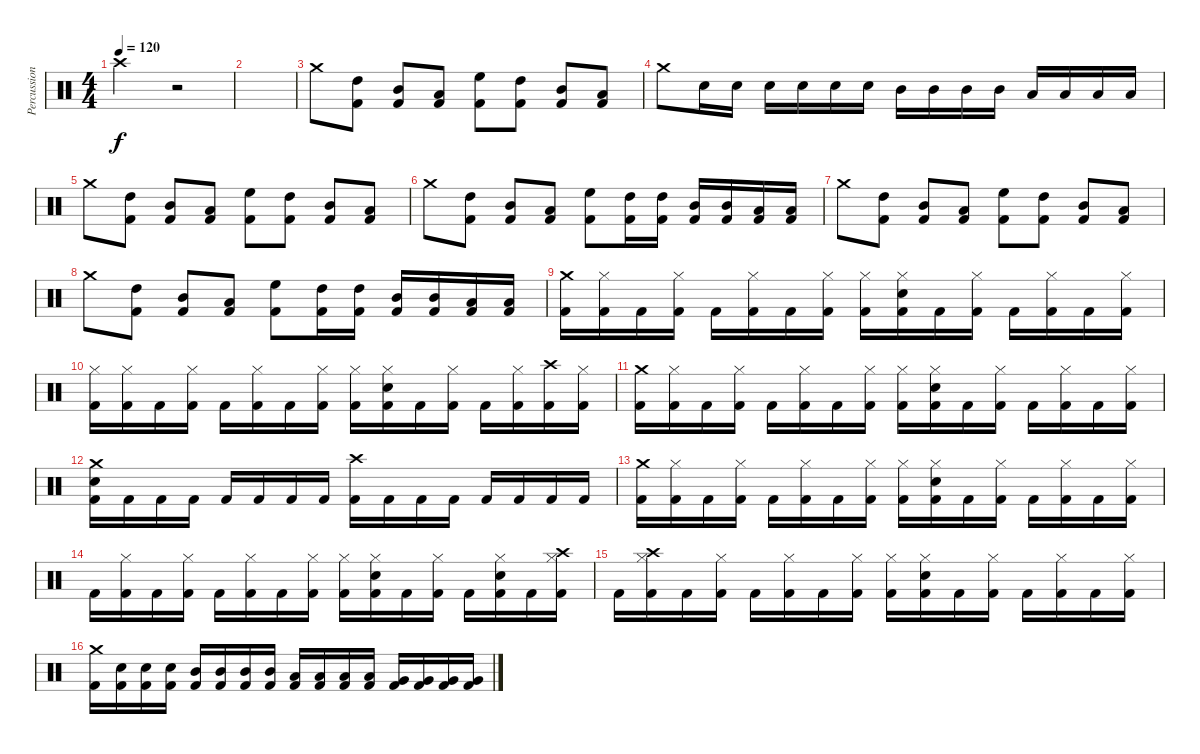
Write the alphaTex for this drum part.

\track ("Percussion" "Percussion") {instrument percussion}
\staff {score}
\articulation defaults
\ts (4 4)
\tempo 120
\clef neutral
\ks c "Crash high (hit)".2{dy f}
r.2 |
|
"Crash medium (hit)".8 ("High Tom (hit)" "Kick (hit) 2").8 ("Mid Tom (hit)" "Kick (hit) 2").8 ("Low Tom (hit)" "Kick (hit) 2").8 ("High Floor Tom (hit)" "Kick (hit) 2").8 ("High Tom (hit)" "Kick (hit) 2").8 ("Mid Tom (hit)" "Kick (hit) 2").8 ("Low Tom (hit)" "Kick (hit) 2").8 |
"Crash medium (hit)".8 "Snare (hit) 2".16 "Snare (hit) 2".16 "Snare (hit) 2".16 "Snare (hit) 2".16 "Snare (hit) 2".16 "Snare (hit) 2".16 "Mid Tom (hit)".16 "Mid Tom (hit)".16 "Mid Tom (hit)".16 "Mid Tom (hit)".16 "Low Tom (hit)".16 "Low Tom (hit)".16 "Low Tom (hit)".16 "Low Tom (hit)".16 |
"Crash medium (hit)".8 ("High Tom (hit)" "Kick (hit) 2").8 ("Mid Tom (hit)" "Kick (hit) 2").8 ("Low Tom (hit)" "Kick (hit) 2").8 ("High Floor Tom (hit)" "Kick (hit) 2").8 ("High Tom (hit)" "Kick (hit) 2").8 ("Mid Tom (hit)" "Kick (hit) 2").8 ("Low Tom (hit)" "Kick (hit) 2").8 |
"Crash medium (hit)".8 ("High Tom (hit)" "Kick (hit) 2").8 ("Mid Tom (hit)" "Kick (hit) 2").8 ("Low Tom (hit)" "Kick (hit) 2").8 ("High Floor Tom (hit)" "Kick (hit) 2").8 ("High Tom (hit)" "Kick (hit) 2").16 ("High Tom (hit)" "Kick (hit) 2").16 ("Mid Tom (hit)" "Kick (hit) 2").16 ("Mid Tom (hit)" "Kick (hit) 2").16 ("Low Tom (hit)" "Kick (hit) 2").16 ("Low Tom (hit)" "Kick (hit) 2").16 |
"Crash medium (hit)".8 ("High Tom (hit)" "Kick (hit) 2").8 ("Mid Tom (hit)" "Kick (hit) 2").8 ("Low Tom (hit)" "Kick (hit) 2").8 ("High Floor Tom (hit)" "Kick (hit) 2").8 ("High Tom (hit)" "Kick (hit) 2").8 ("Mid Tom (hit)" "Kick (hit) 2").8 ("Low Tom (hit)" "Kick (hit) 2").8 |
"Crash medium (hit)".8 ("High Tom (hit)" "Kick (hit) 2").8 ("Mid Tom (hit)" "Kick (hit) 2").8 ("Low Tom (hit)" "Kick (hit) 2").8 ("High Floor Tom (hit)" "Kick (hit) 2").8 ("High Tom (hit)" "Kick (hit) 2").16 ("High Tom (hit)" "Kick (hit) 2").16 ("Mid Tom (hit)" "Kick (hit) 2").16 ("Mid Tom (hit)" "Kick (hit) 2").16 ("Low Tom (hit)" "Kick (hit) 2").16 ("Low Tom (hit)" "Kick (hit) 2").16 |
("Crash medium (hit)" "Kick (hit) 2").16 ("Hi-Hat (closed)" "Kick (hit) 2").16 "Kick (hit) 2".16 ("Hi-Hat (closed)" "Kick (hit) 2").16 "Kick (hit) 2".16 ("Hi-Hat (closed)" "Kick (hit) 2").16 "Kick (hit) 2".16 ("Hi-Hat (closed)" "Kick (hit) 2").16 ("Hi-Hat (closed)" "Kick (hit) 2").16 ("Hi-Hat (closed)" "Snare (hit) 2" "Kick (hit) 2").16 "Kick (hit) 2".16 ("Hi-Hat (closed)" "Kick (hit) 2").16 "Kick (hit) 2".16 ("Hi-Hat (closed)" "Kick (hit) 2").16 "Kick (hit) 2".16 ("Hi-Hat (closed)" "Kick (hit) 2").16 |
("Hi-Hat (closed)" "Kick (hit) 2").16 ("Hi-Hat (closed)" "Kick (hit) 2").16 "Kick (hit) 2".16 ("Hi-Hat (closed)" "Kick (hit) 2").16 "Kick (hit) 2".16 ("Hi-Hat (closed)" "Kick (hit) 2").16 "Kick (hit) 2".16 ("Hi-Hat (closed)" "Kick (hit) 2").16 ("Hi-Hat (closed)" "Kick (hit) 2").16 ("Hi-Hat (closed)" "Snare (hit) 2" "Kick (hit) 2").16 "Kick (hit) 2".16 ("Hi-Hat (closed)" "Kick (hit) 2").16 "Kick (hit) 2".16 ("Hi-Hat (closed)" "Kick (hit) 2").16 ("Crash high (hit)" "Kick (hit) 2").16 ("Hi-Hat (closed)" "Kick (hit) 2").16 |
("Crash medium (hit)" "Kick (hit) 2").16 ("Hi-Hat (closed)" "Kick (hit) 2").16 "Kick (hit) 2".16 ("Hi-Hat (closed)" "Kick (hit) 2").16 "Kick (hit) 2".16 ("Hi-Hat (closed)" "Kick (hit) 2").16 "Kick (hit) 2".16 ("Hi-Hat (closed)" "Kick (hit) 2").16 ("Hi-Hat (closed)" "Kick (hit) 2").16 ("Hi-Hat (closed)" "Snare (hit) 2" "Kick (hit) 2").16 "Kick (hit) 2".16 ("Hi-Hat (closed)" "Kick (hit) 2").16 "Kick (hit) 2".16 ("Hi-Hat (closed)" "Kick (hit) 2").16 "Kick (hit) 2".16 ("Hi-Hat (closed)" "Kick (hit) 2").16 |
("Crash medium (hit)" "Snare (hit) 2" "Kick (hit) 2").16 "Kick (hit) 2".16 "Kick (hit) 2".16 "Kick (hit) 2".16 "Kick (hit) 2".16 "Kick (hit) 2".16 "Kick (hit) 2".16 "Kick (hit) 2".16 ("Crash high (hit)" "Kick (hit) 2").16 "Kick (hit) 2".16 "Kick (hit) 2".16 "Kick (hit) 2".16 "Kick (hit) 2".16 "Kick (hit) 2".16 "Kick (hit) 2".16 "Kick (hit) 2".16 |
("Crash medium (hit)" "Kick (hit) 2").16 ("Hi-Hat (closed)" "Kick (hit) 2").16 "Kick (hit) 2".16 ("Hi-Hat (closed)" "Kick (hit) 2").16 "Kick (hit) 2".16 ("Hi-Hat (closed)" "Kick (hit) 2").16 "Kick (hit) 2".16 ("Hi-Hat (closed)" "Kick (hit) 2").16 ("Hi-Hat (closed)" "Kick (hit) 2").16 ("Hi-Hat (closed)" "Snare (hit) 2" "Kick (hit) 2").16 "Kick (hit) 2".16 ("Hi-Hat (closed)" "Kick (hit) 2").16 "Kick (hit) 2".16 ("Hi-Hat (closed)" "Kick (hit) 2").16 "Kick (hit) 2".16 ("Hi-Hat (closed)" "Kick (hit) 2").16 |
"Kick (hit) 2".16 ("Hi-Hat (closed)" "Kick (hit) 2").16 "Kick (hit) 2".16 ("Hi-Hat (closed)" "Kick (hit) 2").16 "Kick (hit) 2".16 ("Hi-Hat (closed)" "Kick (hit) 2").16 "Kick (hit) 2".16 ("Hi-Hat (closed)" "Kick (hit) 2").16 ("Hi-Hat (closed)" "Kick (hit) 2").16 ("Hi-Hat (closed)" "Snare (hit) 2" "Kick (hit) 2").16 "Kick (hit) 2".16 ("Hi-Hat (closed)" "Kick (hit) 2").16 "Kick (hit) 2".16 ("Hi-Hat (closed)" "Snare (hit) 2" "Kick (hit) 2").16 "Kick (hit) 2".16 ("Crash high (hit)" "Hi-Hat (closed)" "Kick (hit) 2").16 |
"Kick (hit) 2".16 ("Crash high (hit)" "Hi-Hat (closed)" "Kick (hit) 2").16 "Kick (hit) 2".16 ("Hi-Hat (closed)" "Kick (hit) 2").16 "Kick (hit) 2".16 ("Hi-Hat (closed)" "Kick (hit) 2").16 "Kick (hit) 2".16 ("Hi-Hat (closed)" "Kick (hit) 2").16 ("Hi-Hat (closed)" "Kick (hit) 2").16 ("Hi-Hat (closed)" "Snare (hit) 2" "Kick (hit) 2").16 "Kick (hit) 2".16 ("Hi-Hat (closed)" "Kick (hit) 2").16 "Kick (hit) 2".16 ("Hi-Hat (closed)" "Kick (hit) 2").16 "Kick (hit) 2".16 ("Hi-Hat (closed)" "Kick (hit) 2").16 |
("Crash medium (hit)" "Kick (hit) 2").16 ("Snare (hit) 2" "Kick (hit) 2").16 ("Snare (hit) 2" "Kick (hit) 2").16 ("Snare (hit) 2" "Kick (hit) 2").16 ("Mid Tom (hit)" "Kick (hit) 2").16 ("Mid Tom (hit)" "Kick (hit) 2").16 ("Mid Tom (hit)" "Kick (hit) 2").16 ("Mid Tom (hit)" "Kick (hit) 2").16 ("Low Tom (hit)" "Kick (hit) 2").16 ("Low Tom (hit)" "Kick (hit) 2").16 ("Low Tom (hit)" "Kick (hit) 2").16 ("Low Tom (hit)" "Kick (hit) 2").16 ("Very Low Tom (hit)" "Kick (hit) 2").16 ("Very Low Tom (hit)" "Kick (hit) 2").16 ("Very Low Tom (hit)" "Kick (hit) 2").16 ("Very Low Tom (hit)" "Kick (hit) 2").16
